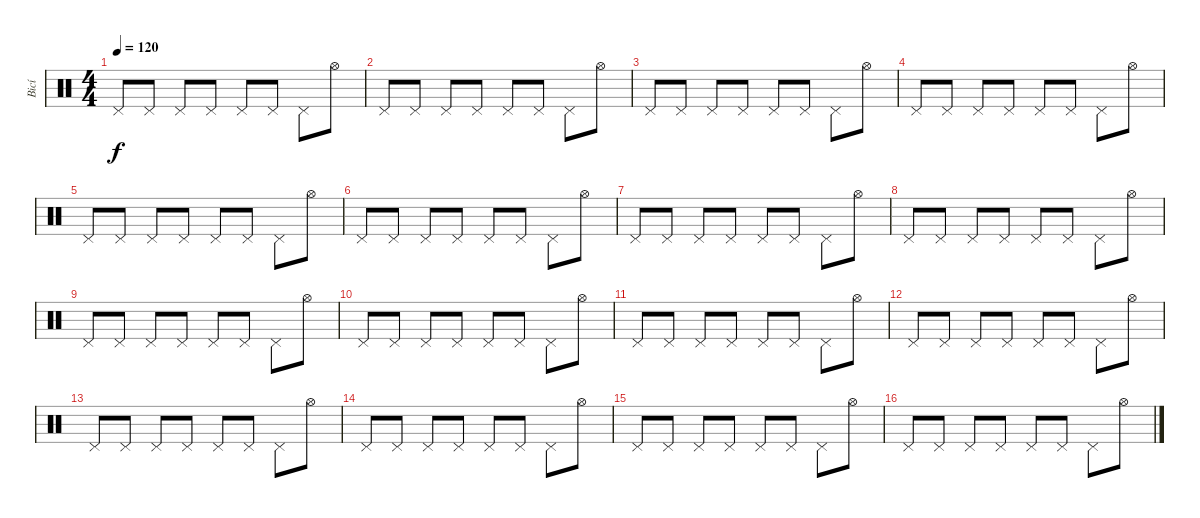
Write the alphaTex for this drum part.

\track ("Bicí" "Bicí") {instrument percussion}
\staff {score}
\articulation defaults
\ts (4 4)
\tempo 120
\clef neutral
\ks c "Pedal Hi-Hat (hit)".8{dy f} "Pedal Hi-Hat (hit)".8 "Pedal Hi-Hat (hit)".8 "Pedal Hi-Hat (hit)".8 "Pedal Hi-Hat (hit)".8 "Pedal Hi-Hat (hit)".8 "Pedal Hi-Hat (hit)".8 "Hi-Hat (open)".8
|
"Pedal Hi-Hat (hit)".8 "Pedal Hi-Hat (hit)".8 "Pedal Hi-Hat (hit)".8 "Pedal Hi-Hat (hit)".8 "Pedal Hi-Hat (hit)".8 "Pedal Hi-Hat (hit)".8 "Pedal Hi-Hat (hit)".8 "Hi-Hat (open)".8 |
"Pedal Hi-Hat (hit)".8 "Pedal Hi-Hat (hit)".8 "Pedal Hi-Hat (hit)".8 "Pedal Hi-Hat (hit)".8 "Pedal Hi-Hat (hit)".8 "Pedal Hi-Hat (hit)".8 "Pedal Hi-Hat (hit)".8 "Hi-Hat (open)".8 |
"Pedal Hi-Hat (hit)".8 "Pedal Hi-Hat (hit)".8 "Pedal Hi-Hat (hit)".8 "Pedal Hi-Hat (hit)".8 "Pedal Hi-Hat (hit)".8 "Pedal Hi-Hat (hit)".8 "Pedal Hi-Hat (hit)".8 "Hi-Hat (open)".8 |
"Pedal Hi-Hat (hit)".8 "Pedal Hi-Hat (hit)".8 "Pedal Hi-Hat (hit)".8 "Pedal Hi-Hat (hit)".8 "Pedal Hi-Hat (hit)".8 "Pedal Hi-Hat (hit)".8 "Pedal Hi-Hat (hit)".8 "Hi-Hat (open)".8 |
"Pedal Hi-Hat (hit)".8 "Pedal Hi-Hat (hit)".8 "Pedal Hi-Hat (hit)".8 "Pedal Hi-Hat (hit)".8 "Pedal Hi-Hat (hit)".8 "Pedal Hi-Hat (hit)".8 "Pedal Hi-Hat (hit)".8 "Hi-Hat (open)".8 |
"Pedal Hi-Hat (hit)".8 "Pedal Hi-Hat (hit)".8 "Pedal Hi-Hat (hit)".8 "Pedal Hi-Hat (hit)".8 "Pedal Hi-Hat (hit)".8 "Pedal Hi-Hat (hit)".8 "Pedal Hi-Hat (hit)".8 "Hi-Hat (open)".8 |
"Pedal Hi-Hat (hit)".8 "Pedal Hi-Hat (hit)".8 "Pedal Hi-Hat (hit)".8 "Pedal Hi-Hat (hit)".8 "Pedal Hi-Hat (hit)".8 "Pedal Hi-Hat (hit)".8 "Pedal Hi-Hat (hit)".8 "Hi-Hat (open)".8 |
"Pedal Hi-Hat (hit)".8 "Pedal Hi-Hat (hit)".8 "Pedal Hi-Hat (hit)".8 "Pedal Hi-Hat (hit)".8 "Pedal Hi-Hat (hit)".8 "Pedal Hi-Hat (hit)".8 "Pedal Hi-Hat (hit)".8 "Hi-Hat (open)".8 |
"Pedal Hi-Hat (hit)".8 "Pedal Hi-Hat (hit)".8 "Pedal Hi-Hat (hit)".8 "Pedal Hi-Hat (hit)".8 "Pedal Hi-Hat (hit)".8 "Pedal Hi-Hat (hit)".8 "Pedal Hi-Hat (hit)".8 "Hi-Hat (open)".8 |
"Pedal Hi-Hat (hit)".8 "Pedal Hi-Hat (hit)".8 "Pedal Hi-Hat (hit)".8 "Pedal Hi-Hat (hit)".8 "Pedal Hi-Hat (hit)".8 "Pedal Hi-Hat (hit)".8 "Pedal Hi-Hat (hit)".8 "Hi-Hat (open)".8 |
"Pedal Hi-Hat (hit)".8 "Pedal Hi-Hat (hit)".8 "Pedal Hi-Hat (hit)".8 "Pedal Hi-Hat (hit)".8 "Pedal Hi-Hat (hit)".8 "Pedal Hi-Hat (hit)".8 "Pedal Hi-Hat (hit)".8 "Hi-Hat (open)".8 |
"Pedal Hi-Hat (hit)".8 "Pedal Hi-Hat (hit)".8 "Pedal Hi-Hat (hit)".8 "Pedal Hi-Hat (hit)".8 "Pedal Hi-Hat (hit)".8 "Pedal Hi-Hat (hit)".8 "Pedal Hi-Hat (hit)".8 "Hi-Hat (open)".8 |
"Pedal Hi-Hat (hit)".8 "Pedal Hi-Hat (hit)".8 "Pedal Hi-Hat (hit)".8 "Pedal Hi-Hat (hit)".8 "Pedal Hi-Hat (hit)".8 "Pedal Hi-Hat (hit)".8 "Pedal Hi-Hat (hit)".8 "Hi-Hat (open)".8 |
"Pedal Hi-Hat (hit)".8 "Pedal Hi-Hat (hit)".8 "Pedal Hi-Hat (hit)".8 "Pedal Hi-Hat (hit)".8 "Pedal Hi-Hat (hit)".8 "Pedal Hi-Hat (hit)".8 "Pedal Hi-Hat (hit)".8 "Hi-Hat (open)".8 |
"Pedal Hi-Hat (hit)".8 "Pedal Hi-Hat (hit)".8 "Pedal Hi-Hat (hit)".8 "Pedal Hi-Hat (hit)".8 "Pedal Hi-Hat (hit)".8 "Pedal Hi-Hat (hit)".8 "Pedal Hi-Hat (hit)".8 "Hi-Hat (open)".8
